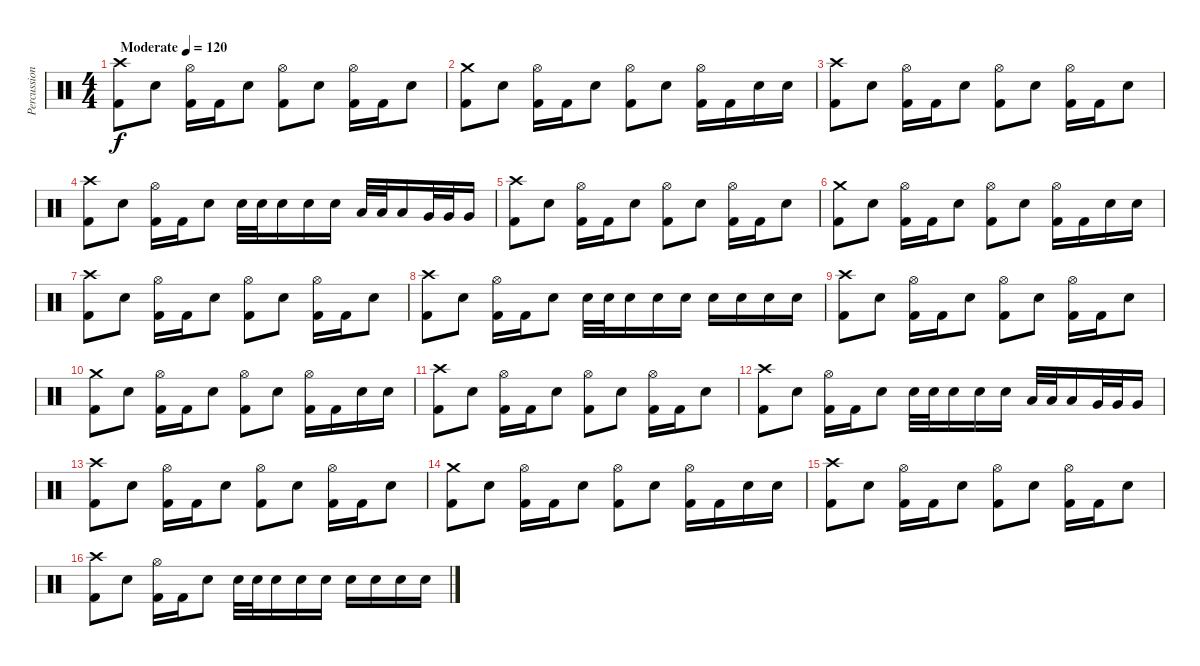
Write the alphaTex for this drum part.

\track ("Percussion" "Percussion") {instrument percussion}
\staff {score}
\articulation defaults
\ts (4 4)
\tempo (120 "Moderate")
\clef neutral
\ks c
("Crash high (hit)" "Kick (hit) 2").8{dy f} "Snare (hit) 2".8 ("Hi-Hat (open)" "Kick (hit) 2").16 "Kick (hit) 2".16 "Snare (hit) 2".8 ("Hi-Hat (open)" "Kick (hit) 2").8 "Snare (hit) 2".8 ("Hi-Hat (open)" "Kick (hit) 2").16 "Kick (hit) 2".16 "Snare (hit) 2".8 |
("Crash medium (hit)" "Kick (hit) 2").8 "Snare (hit) 2".8 ("Hi-Hat (open)" "Kick (hit) 2").16 "Kick (hit) 2".16 "Snare (hit) 2".8 ("Hi-Hat (open)" "Kick (hit) 2").8 "Snare (hit) 2".8 ("Hi-Hat (open)" "Kick (hit) 2").16 "Kick (hit) 2".16 "Snare (hit) 2".16 "Snare (hit) 2".16 |
("Crash high (hit)" "Kick (hit) 2").8 "Snare (hit) 2".8 ("Hi-Hat (open)" "Kick (hit) 2").16 "Kick (hit) 2".16 "Snare (hit) 2".8 ("Hi-Hat (open)" "Kick (hit) 2").8 "Snare (hit) 2".8 ("Hi-Hat (open)" "Kick (hit) 2").16 "Kick (hit) 2".16 "Snare (hit) 2".8 |
("Crash high (hit)" "Kick (hit) 2").8 "Snare (hit) 2".8 ("Hi-Hat (open)" "Kick (hit) 2").16 "Kick (hit) 2".16 "Snare (hit) 2".8 "Snare (hit) 2".32 "Snare (hit) 2".32 "Snare (hit) 2".16 "Snare (hit) 2".16 "Snare (hit) 2".16 "Low Tom (hit)".32 "Low Tom (hit)".32 "Low Tom (hit)".16 "Very Low Tom (hit)".32 "Very Low Tom (hit)".32 "Very Low Tom (hit)".16 |
("Crash high (hit)" "Kick (hit) 2").8 "Snare (hit) 2".8 ("Hi-Hat (open)" "Kick (hit) 2").16 "Kick (hit) 2".16 "Snare (hit) 2".8 ("Hi-Hat (open)" "Kick (hit) 2").8 "Snare (hit) 2".8 ("Hi-Hat (open)" "Kick (hit) 2").16 "Kick (hit) 2".16 "Snare (hit) 2".8 |
("Crash medium (hit)" "Kick (hit) 2").8 "Snare (hit) 2".8 ("Hi-Hat (open)" "Kick (hit) 2").16 "Kick (hit) 2".16 "Snare (hit) 2".8 ("Hi-Hat (open)" "Kick (hit) 2").8 "Snare (hit) 2".8 ("Hi-Hat (open)" "Kick (hit) 2").16 "Kick (hit) 2".16 "Snare (hit) 2".16 "Snare (hit) 2".16 |
("Crash high (hit)" "Kick (hit) 2").8 "Snare (hit) 2".8 ("Hi-Hat (open)" "Kick (hit) 2").16 "Kick (hit) 2".16 "Snare (hit) 2".8 ("Hi-Hat (open)" "Kick (hit) 2").8 "Snare (hit) 2".8 ("Hi-Hat (open)" "Kick (hit) 2").16 "Kick (hit) 2".16 "Snare (hit) 2".8 |
("Crash high (hit)" "Kick (hit) 2").8 "Snare (hit) 2".8 ("Hi-Hat (open)" "Kick (hit) 2").16 "Kick (hit) 2".16 "Snare (hit) 2".8 "Snare (hit) 2".32 "Snare (hit) 2".32 "Snare (hit) 2".16 "Snare (hit) 2".16 "Snare (hit) 2".16 "Snare (hit) 2".16 "Snare (hit) 2".16 "Snare (hit) 2".16 "Snare (hit) 2".16 |
("Crash high (hit)" "Kick (hit) 2").8 "Snare (hit) 2".8 ("Hi-Hat (open)" "Kick (hit) 2").16 "Kick (hit) 2".16 "Snare (hit) 2".8 ("Hi-Hat (open)" "Kick (hit) 2").8 "Snare (hit) 2".8 ("Hi-Hat (open)" "Kick (hit) 2").16 "Kick (hit) 2".16 "Snare (hit) 2".8 |
("Crash medium (hit)" "Kick (hit) 2").8 "Snare (hit) 2".8 ("Hi-Hat (open)" "Kick (hit) 2").16 "Kick (hit) 2".16 "Snare (hit) 2".8 ("Hi-Hat (open)" "Kick (hit) 2").8 "Snare (hit) 2".8 ("Hi-Hat (open)" "Kick (hit) 2").16 "Kick (hit) 2".16 "Snare (hit) 2".16 "Snare (hit) 2".16 |
("Crash high (hit)" "Kick (hit) 2").8 "Snare (hit) 2".8 ("Hi-Hat (open)" "Kick (hit) 2").16 "Kick (hit) 2".16 "Snare (hit) 2".8 ("Hi-Hat (open)" "Kick (hit) 2").8 "Snare (hit) 2".8 ("Hi-Hat (open)" "Kick (hit) 2").16 "Kick (hit) 2".16 "Snare (hit) 2".8 |
("Crash high (hit)" "Kick (hit) 2").8 "Snare (hit) 2".8 ("Hi-Hat (open)" "Kick (hit) 2").16 "Kick (hit) 2".16 "Snare (hit) 2".8 "Snare (hit) 2".32 "Snare (hit) 2".32 "Snare (hit) 2".16 "Snare (hit) 2".16 "Snare (hit) 2".16 "Low Tom (hit)".32 "Low Tom (hit)".32 "Low Tom (hit)".16 "Very Low Tom (hit)".32 "Very Low Tom (hit)".32 "Very Low Tom (hit)".16 |
("Crash high (hit)" "Kick (hit) 2").8 "Snare (hit) 2".8 ("Hi-Hat (open)" "Kick (hit) 2").16 "Kick (hit) 2".16 "Snare (hit) 2".8 ("Hi-Hat (open)" "Kick (hit) 2").8 "Snare (hit) 2".8 ("Hi-Hat (open)" "Kick (hit) 2").16 "Kick (hit) 2".16 "Snare (hit) 2".8 |
("Crash medium (hit)" "Kick (hit) 2").8 "Snare (hit) 2".8 ("Hi-Hat (open)" "Kick (hit) 2").16 "Kick (hit) 2".16 "Snare (hit) 2".8 ("Hi-Hat (open)" "Kick (hit) 2").8 "Snare (hit) 2".8 ("Hi-Hat (open)" "Kick (hit) 2").16 "Kick (hit) 2".16 "Snare (hit) 2".16 "Snare (hit) 2".16 |
("Crash high (hit)" "Kick (hit) 2").8 "Snare (hit) 2".8 ("Hi-Hat (open)" "Kick (hit) 2").16 "Kick (hit) 2".16 "Snare (hit) 2".8 ("Hi-Hat (open)" "Kick (hit) 2").8 "Snare (hit) 2".8 ("Hi-Hat (open)" "Kick (hit) 2").16 "Kick (hit) 2".16 "Snare (hit) 2".8 |
("Crash high (hit)" "Kick (hit) 2").8 "Snare (hit) 2".8 ("Hi-Hat (open)" "Kick (hit) 2").16 "Kick (hit) 2".16 "Snare (hit) 2".8 "Snare (hit) 2".32 "Snare (hit) 2".32 "Snare (hit) 2".16 "Snare (hit) 2".16 "Snare (hit) 2".16 "Snare (hit) 2".16 "Snare (hit) 2".16 "Snare (hit) 2".16 "Snare (hit) 2".16
